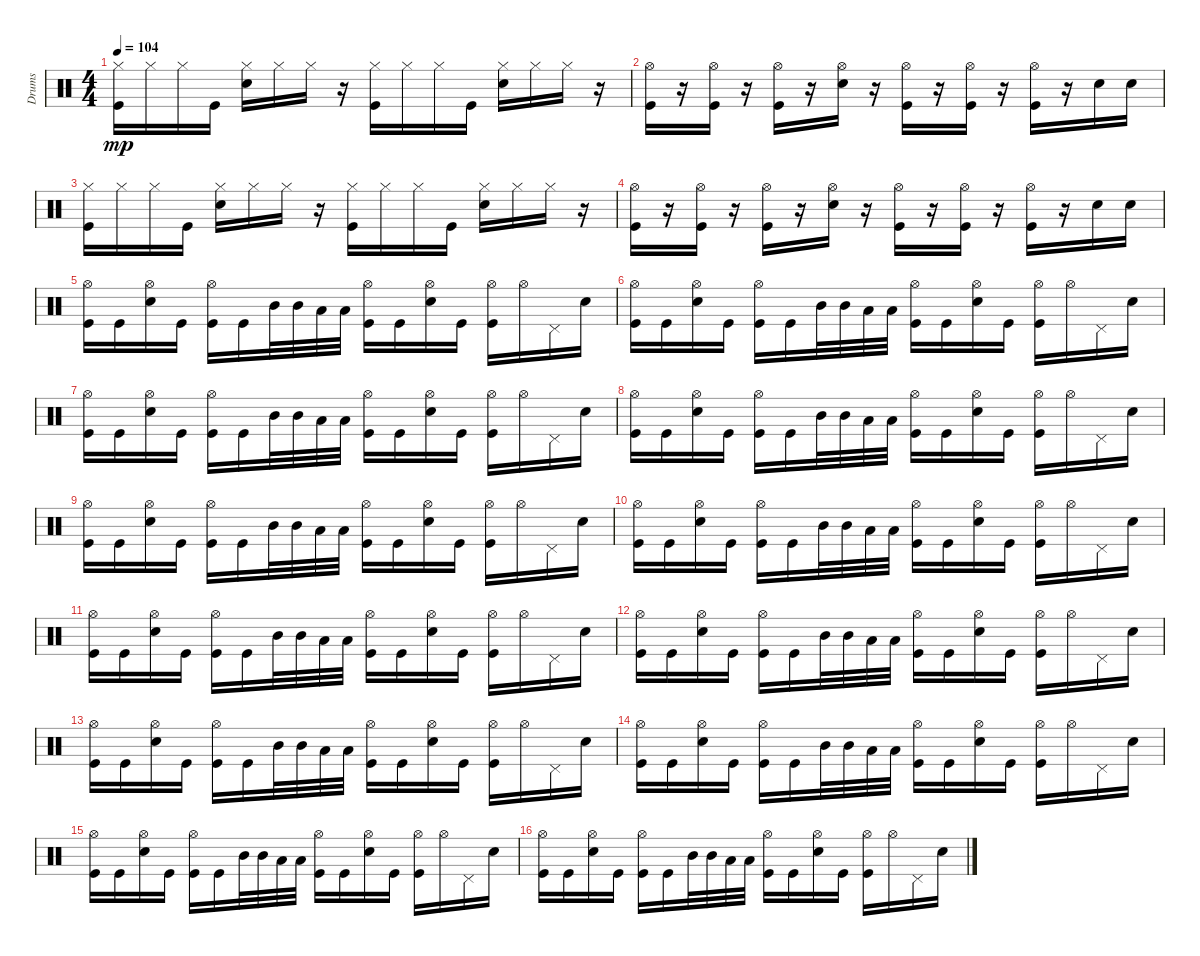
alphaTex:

\track ("Drums" "Drums") {instrument percussion}
\staff {score}
\articulation defaults
\ts (4 4)
\tempo 104
\clef neutral
\ks c
("Hi-Hat (closed)" "Kick (hit)").16{dy mp} "Hi-Hat (closed)".16 "Hi-Hat (closed)".16 "Kick (hit)".16 ("Hi-Hat (closed)" "Snare (hit) 2").16 "Hi-Hat (closed)".16 "Hi-Hat (closed)".16 r.16 ("Hi-Hat (closed)" "Kick (hit)").16 "Hi-Hat (closed)".16 "Hi-Hat (closed)".16 "Kick (hit)".16 ("Hi-Hat (closed)" "Snare (hit) 2").16 "Hi-Hat (closed)".16 "Hi-Hat (closed)".16 r.16 |
("Hi-Hat (open)" "Kick (hit)").16 r.16 ("Hi-Hat (open)" "Kick (hit)").16 r.16 ("Hi-Hat (open)" "Kick (hit)").16 r.16 ("Hi-Hat (open)" "Snare (hit) 2").16 r.16 ("Hi-Hat (open)" "Kick (hit)").16 r.16 ("Hi-Hat (open)" "Kick (hit)").16 r.16 ("Hi-Hat (open)" "Kick (hit)").16 r.16 "Snare (hit) 2".16 "Snare (hit) 2".16 |
("Hi-Hat (closed)" "Kick (hit)").16 "Hi-Hat (closed)".16 "Hi-Hat (closed)".16 "Kick (hit)".16 ("Hi-Hat (closed)" "Snare (hit) 2").16 "Hi-Hat (closed)".16 "Hi-Hat (closed)".16 r.16 ("Hi-Hat (closed)" "Kick (hit)").16 "Hi-Hat (closed)".16 "Hi-Hat (closed)".16 "Kick (hit)".16 ("Hi-Hat (closed)" "Snare (hit) 2").16 "Hi-Hat (closed)".16 "Hi-Hat (closed)".16 r.16 |
("Hi-Hat (open)" "Kick (hit)").16 r.16 ("Hi-Hat (open)" "Kick (hit)").16 r.16 ("Hi-Hat (open)" "Kick (hit)").16 r.16 ("Hi-Hat (open)" "Snare (hit) 2").16 r.16 ("Hi-Hat (open)" "Kick (hit)").16 r.16 ("Hi-Hat (open)" "Kick (hit)").16 r.16 ("Hi-Hat (open)" "Kick (hit)").16 r.16 "Snare (hit) 2".16 "Snare (hit) 2".16 |
("Hi-Hat (open)" "Kick (hit)").16 "Kick (hit)".16 ("Hi-Hat (open)" "Snare (hit) 2").16 "Kick (hit)".16 ("Hi-Hat (open)" "Kick (hit)").16 "Kick (hit)".16 "Mid Tom (hit)".32 "Mid Tom (hit)".32 "Low Tom (hit)".32 "Low Floor Tom (hit)".32 ("Hi-Hat (open)" "Kick (hit)").16 "Kick (hit)".16 ("Hi-Hat (open)" "Snare (hit) 2").16 "Kick (hit)".16 ("Hi-Hat (open)" "Kick (hit)").16 "Hi-Hat (open)".16 "Pedal Hi-Hat (hit)".16 "Snare (hit) 2".16 |
("Hi-Hat (open)" "Kick (hit)").16 "Kick (hit)".16 ("Hi-Hat (open)" "Snare (hit) 2").16 "Kick (hit)".16 ("Hi-Hat (open)" "Kick (hit)").16 "Kick (hit)".16 "Mid Tom (hit)".32 "Mid Tom (hit)".32 "Low Tom (hit)".32 "Low Floor Tom (hit)".32 ("Hi-Hat (open)" "Kick (hit)").16 "Kick (hit)".16 ("Hi-Hat (open)" "Snare (hit) 2").16 "Kick (hit)".16 ("Hi-Hat (open)" "Kick (hit)").16 "Hi-Hat (open)".16 "Pedal Hi-Hat (hit)".16 "Snare (hit) 2".16 |
("Hi-Hat (open)" "Kick (hit)").16 "Kick (hit)".16 ("Hi-Hat (open)" "Snare (hit) 2").16 "Kick (hit)".16 ("Hi-Hat (open)" "Kick (hit)").16 "Kick (hit)".16 "Mid Tom (hit)".32 "Mid Tom (hit)".32 "Low Tom (hit)".32 "Low Floor Tom (hit)".32 ("Hi-Hat (open)" "Kick (hit)").16 "Kick (hit)".16 ("Hi-Hat (open)" "Snare (hit) 2").16 "Kick (hit)".16 ("Hi-Hat (open)" "Kick (hit)").16 "Hi-Hat (open)".16 "Pedal Hi-Hat (hit)".16 "Snare (hit) 2".16 |
("Hi-Hat (open)" "Kick (hit)").16 "Kick (hit)".16 ("Hi-Hat (open)" "Snare (hit) 2").16 "Kick (hit)".16 ("Hi-Hat (open)" "Kick (hit)").16 "Kick (hit)".16 "Mid Tom (hit)".32 "Mid Tom (hit)".32 "Low Tom (hit)".32 "Low Floor Tom (hit)".32 ("Hi-Hat (open)" "Kick (hit)").16 "Kick (hit)".16 ("Hi-Hat (open)" "Snare (hit) 2").16 "Kick (hit)".16 ("Hi-Hat (open)" "Kick (hit)").16 "Hi-Hat (open)".16 "Pedal Hi-Hat (hit)".16 "Snare (hit) 2".16 |
("Hi-Hat (open)" "Kick (hit)").16 "Kick (hit)".16 ("Hi-Hat (open)" "Snare (hit) 2").16 "Kick (hit)".16 ("Hi-Hat (open)" "Kick (hit)").16 "Kick (hit)".16 "Mid Tom (hit)".32 "Mid Tom (hit)".32 "Low Tom (hit)".32 "Low Floor Tom (hit)".32 ("Hi-Hat (open)" "Kick (hit)").16 "Kick (hit)".16 ("Hi-Hat (open)" "Snare (hit) 2").16 "Kick (hit)".16 ("Hi-Hat (open)" "Kick (hit)").16 "Hi-Hat (open)".16 "Pedal Hi-Hat (hit)".16 "Snare (hit) 2".16 |
("Hi-Hat (open)" "Kick (hit)").16 "Kick (hit)".16 ("Hi-Hat (open)" "Snare (hit) 2").16 "Kick (hit)".16 ("Hi-Hat (open)" "Kick (hit)").16 "Kick (hit)".16 "Mid Tom (hit)".32 "Mid Tom (hit)".32 "Low Tom (hit)".32 "Low Floor Tom (hit)".32 ("Hi-Hat (open)" "Kick (hit)").16 "Kick (hit)".16 ("Hi-Hat (open)" "Snare (hit) 2").16 "Kick (hit)".16 ("Hi-Hat (open)" "Kick (hit)").16 "Hi-Hat (open)".16 "Pedal Hi-Hat (hit)".16 "Snare (hit) 2".16 |
("Hi-Hat (open)" "Kick (hit)").16 "Kick (hit)".16 ("Hi-Hat (open)" "Snare (hit) 2").16 "Kick (hit)".16 ("Hi-Hat (open)" "Kick (hit)").16 "Kick (hit)".16 "Mid Tom (hit)".32 "Mid Tom (hit)".32 "Low Tom (hit)".32 "Low Floor Tom (hit)".32 ("Hi-Hat (open)" "Kick (hit)").16 "Kick (hit)".16 ("Hi-Hat (open)" "Snare (hit) 2").16 "Kick (hit)".16 ("Hi-Hat (open)" "Kick (hit)").16 "Hi-Hat (open)".16 "Pedal Hi-Hat (hit)".16 "Snare (hit) 2".16 |
("Hi-Hat (open)" "Kick (hit)").16 "Kick (hit)".16 ("Hi-Hat (open)" "Snare (hit) 2").16 "Kick (hit)".16 ("Hi-Hat (open)" "Kick (hit)").16 "Kick (hit)".16 "Mid Tom (hit)".32 "Mid Tom (hit)".32 "Low Tom (hit)".32 "Low Floor Tom (hit)".32 ("Hi-Hat (open)" "Kick (hit)").16 "Kick (hit)".16 ("Hi-Hat (open)" "Snare (hit) 2").16 "Kick (hit)".16 ("Hi-Hat (open)" "Kick (hit)").16 "Hi-Hat (open)".16 "Pedal Hi-Hat (hit)".16 "Snare (hit) 2".16 |
("Hi-Hat (open)" "Kick (hit)").16 "Kick (hit)".16 ("Hi-Hat (open)" "Snare (hit) 2").16 "Kick (hit)".16 ("Hi-Hat (open)" "Kick (hit)").16 "Kick (hit)".16 "Mid Tom (hit)".32 "Mid Tom (hit)".32 "Low Tom (hit)".32 "Low Floor Tom (hit)".32 ("Hi-Hat (open)" "Kick (hit)").16 "Kick (hit)".16 ("Hi-Hat (open)" "Snare (hit) 2").16 "Kick (hit)".16 ("Hi-Hat (open)" "Kick (hit)").16 "Hi-Hat (open)".16 "Pedal Hi-Hat (hit)".16 "Snare (hit) 2".16 |
("Hi-Hat (open)" "Kick (hit)").16 "Kick (hit)".16 ("Hi-Hat (open)" "Snare (hit) 2").16 "Kick (hit)".16 ("Hi-Hat (open)" "Kick (hit)").16 "Kick (hit)".16 "Mid Tom (hit)".32 "Mid Tom (hit)".32 "Low Tom (hit)".32 "Low Floor Tom (hit)".32 ("Hi-Hat (open)" "Kick (hit)").16 "Kick (hit)".16 ("Hi-Hat (open)" "Snare (hit) 2").16 "Kick (hit)".16 ("Hi-Hat (open)" "Kick (hit)").16 "Hi-Hat (open)".16 "Pedal Hi-Hat (hit)".16 "Snare (hit) 2".16 |
("Hi-Hat (open)" "Kick (hit)").16 "Kick (hit)".16 ("Hi-Hat (open)" "Snare (hit) 2").16 "Kick (hit)".16 ("Hi-Hat (open)" "Kick (hit)").16 "Kick (hit)".16 "Mid Tom (hit)".32 "Mid Tom (hit)".32 "Low Tom (hit)".32 "Low Floor Tom (hit)".32 ("Hi-Hat (open)" "Kick (hit)").16 "Kick (hit)".16 ("Hi-Hat (open)" "Snare (hit) 2").16 "Kick (hit)".16 ("Hi-Hat (open)" "Kick (hit)").16 "Hi-Hat (open)".16 "Pedal Hi-Hat (hit)".16 "Snare (hit) 2".16 |
("Hi-Hat (open)" "Kick (hit)").16 "Kick (hit)".16 ("Hi-Hat (open)" "Snare (hit) 2").16 "Kick (hit)".16 ("Hi-Hat (open)" "Kick (hit)").16 "Kick (hit)".16 "Mid Tom (hit)".32 "Mid Tom (hit)".32 "Low Tom (hit)".32 "Low Floor Tom (hit)".32 ("Hi-Hat (open)" "Kick (hit)").16 "Kick (hit)".16 ("Hi-Hat (open)" "Snare (hit) 2").16 "Kick (hit)".16 ("Hi-Hat (open)" "Kick (hit)").16 "Hi-Hat (open)".16 "Pedal Hi-Hat (hit)".16 "Snare (hit) 2".16
